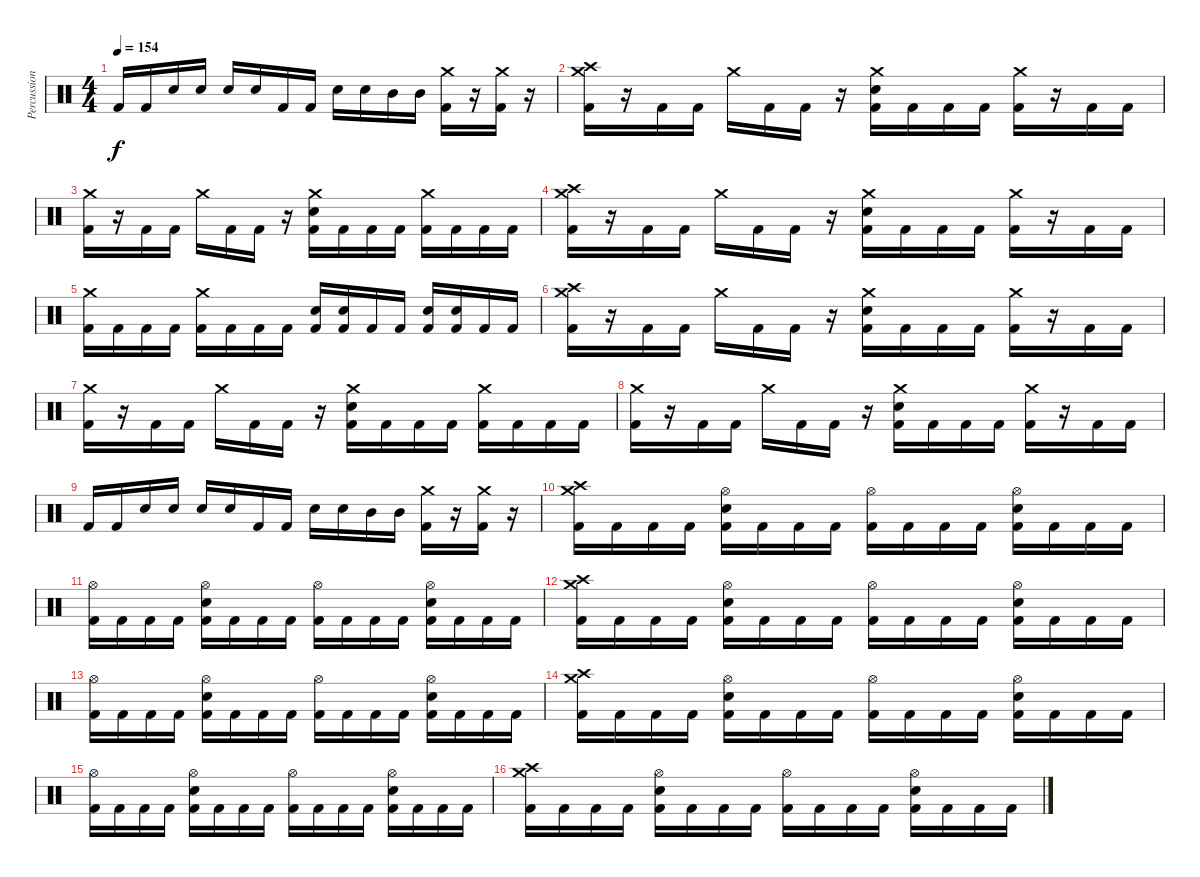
\track ("Percussion" "Percussion") {instrument percussion bank 128}
\staff {score}
\articulation defaults
\ts (4 4)
\tempo 154
\clef neutral
\ks c "Kick (hit) 2".16{dy f} "Kick (hit) 2".16 "Snare (hit) 2".16 "Snare (hit) 2".16 "Snare (hit) 2".16 "Snare (hit) 2".16 "Kick (hit) 2".16 "Kick (hit) 2".16 "Snare (hit) 2".16 "Snare (hit) 2".16 "Mid Tom (hit)".16 "Mid Tom (hit)".16
("Crash medium (hit)" "Kick (hit) 2").16 r.16 ("Crash medium (hit)" "Kick (hit) 2").16 r.16 |
("Crash high (hit)" "Crash medium (hit)" "Kick (hit) 2").16 r.16 "Kick (hit) 2".16 "Kick (hit) 2".16 "Crash medium (hit)".16 "Kick (hit) 2".16 "Kick (hit) 2".16 r.16 ("Crash medium (hit)" "Snare (hit) 2" "Kick (hit) 2").16 "Kick (hit) 2".16 "Kick (hit) 2".16 "Kick (hit) 2".16 ("Crash medium (hit)" "Kick (hit) 2").16 r.16 "Kick (hit) 2".16 "Kick (hit) 2".16 |
("Crash medium (hit)" "Kick (hit) 2").16 r.16 "Kick (hit) 2".16 "Kick (hit) 2".16 "Crash medium (hit)".16 "Kick (hit) 2".16 "Kick (hit) 2".16 r.16 ("Crash medium (hit)" "Snare (hit) 2" "Kick (hit) 2").16 "Kick (hit) 2".16 "Kick (hit) 2".16 "Kick (hit) 2".16 ("Crash medium (hit)" "Kick (hit) 2").16 "Kick (hit) 2".16 "Kick (hit) 2".16 "Kick (hit) 2".16 |
("Crash high (hit)" "Crash medium (hit)" "Kick (hit) 2").16 r.16 "Kick (hit) 2".16 "Kick (hit) 2".16 "Crash medium (hit)".16 "Kick (hit) 2".16 "Kick (hit) 2".16 r.16 ("Crash medium (hit)" "Snare (hit) 2" "Kick (hit) 2").16 "Kick (hit) 2".16 "Kick (hit) 2".16 "Kick (hit) 2".16 ("Crash medium (hit)" "Kick (hit) 2").16 r.16 "Kick (hit) 2".16 "Kick (hit) 2".16 |
("Crash medium (hit)" "Kick (hit) 2").16 "Kick (hit) 2".16 "Kick (hit) 2".16 "Kick (hit) 2".16 ("Crash medium (hit)" "Kick (hit) 2").16 "Kick (hit) 2".16 "Kick (hit) 2".16 "Kick (hit) 2".16 ("Snare (hit) 2" "Kick (hit) 2").16 ("Snare (hit) 2" "Kick (hit) 2").16 "Kick (hit) 2".16 "Kick (hit) 2".16 ("Snare (hit) 2" "Kick (hit) 2").16 ("Snare (hit) 2" "Kick (hit) 2").16 "Kick (hit) 2".16 "Kick (hit) 2".16 |
("Crash high (hit)" "Crash medium (hit)" "Kick (hit) 2").16 r.16 "Kick (hit) 2".16 "Kick (hit) 2".16 "Crash medium (hit)".16 "Kick (hit) 2".16 "Kick (hit) 2".16 r.16 ("Crash medium (hit)" "Snare (hit) 2" "Kick (hit) 2").16 "Kick (hit) 2".16 "Kick (hit) 2".16 "Kick (hit) 2".16 ("Crash medium (hit)" "Kick (hit) 2").16 r.16 "Kick (hit) 2".16 "Kick (hit) 2".16 |
("Crash medium (hit)" "Kick (hit) 2").16 r.16 "Kick (hit) 2".16 "Kick (hit) 2".16 "Crash medium (hit)".16 "Kick (hit) 2".16 "Kick (hit) 2".16 r.16 ("Crash medium (hit)" "Snare (hit) 2" "Kick (hit) 2").16 "Kick (hit) 2".16 "Kick (hit) 2".16 "Kick (hit) 2".16 ("Crash medium (hit)" "Kick (hit) 2").16 "Kick (hit) 2".16 "Kick (hit) 2".16 "Kick (hit) 2".16 |
("Crash medium (hit)" "Kick (hit) 2").16 r.16 "Kick (hit) 2".16 "Kick (hit) 2".16 "Crash medium (hit)".16 "Kick (hit) 2".16 "Kick (hit) 2".16 r.16 ("Crash medium (hit)" "Snare (hit) 2" "Kick (hit) 2").16 "Kick (hit) 2".16 "Kick (hit) 2".16 "Kick (hit) 2".16 ("Crash medium (hit)" "Kick (hit) 2").16 r.16 "Kick (hit) 2".16 "Kick (hit) 2".16 |
"Kick (hit) 2".16 "Kick (hit) 2".16 "Snare (hit) 2".16 "Snare (hit) 2".16 "Snare (hit) 2".16 "Snare (hit) 2".16 "Kick (hit) 2".16 "Kick (hit) 2".16 "Snare (hit) 2".16 "Snare (hit) 2".16 "Mid Tom (hit)".16 "Mid Tom (hit)".16 ("Crash medium (hit)" "Kick (hit) 2").16 r.16 ("Crash medium (hit)" "Kick (hit) 2").16 r.16 |
("Crash high (hit)" "Crash medium (hit)" "Kick (hit) 2").16 "Kick (hit) 2".16 "Kick (hit) 2".16 "Kick (hit) 2".16 ("Hi-Hat (open)" "Snare (hit) 2" "Kick (hit) 2").16 "Kick (hit) 2".16 "Kick (hit) 2".16 "Kick (hit) 2".16 ("Hi-Hat (open)" "Kick (hit) 2").16 "Kick (hit) 2".16 "Kick (hit) 2".16 "Kick (hit) 2".16 ("Hi-Hat (open)" "Snare (hit) 2" "Kick (hit) 2").16 "Kick (hit) 2".16 "Kick (hit) 2".16 "Kick (hit) 2".16 |
("Hi-Hat (open)" "Kick (hit) 2").16 "Kick (hit) 2".16 "Kick (hit) 2".16 "Kick (hit) 2".16 ("Hi-Hat (open)" "Snare (hit) 2" "Kick (hit) 2").16 "Kick (hit) 2".16 "Kick (hit) 2".16 "Kick (hit) 2".16 ("Hi-Hat (open)" "Kick (hit) 2").16 "Kick (hit) 2".16 "Kick (hit) 2".16 "Kick (hit) 2".16 ("Hi-Hat (open)" "Snare (hit) 2" "Kick (hit) 2").16 "Kick (hit) 2".16 "Kick (hit) 2".16 "Kick (hit) 2".16 |
("Crash high (hit)" "Crash medium (hit)" "Kick (hit) 2").16 "Kick (hit) 2".16 "Kick (hit) 2".16 "Kick (hit) 2".16 ("Hi-Hat (open)" "Snare (hit) 2" "Kick (hit) 2").16 "Kick (hit) 2".16 "Kick (hit) 2".16 "Kick (hit) 2".16 ("Hi-Hat (open)" "Kick (hit) 2").16 "Kick (hit) 2".16 "Kick (hit) 2".16 "Kick (hit) 2".16 ("Hi-Hat (open)" "Snare (hit) 2" "Kick (hit) 2").16 "Kick (hit) 2".16 "Kick (hit) 2".16 "Kick (hit) 2".16 |
("Hi-Hat (open)" "Kick (hit) 2").16 "Kick (hit) 2".16 "Kick (hit) 2".16 "Kick (hit) 2".16 ("Hi-Hat (open)" "Snare (hit) 2" "Kick (hit) 2").16 "Kick (hit) 2".16 "Kick (hit) 2".16 "Kick (hit) 2".16 ("Hi-Hat (open)" "Kick (hit) 2").16 "Kick (hit) 2".16 "Kick (hit) 2".16 "Kick (hit) 2".16 ("Hi-Hat (open)" "Snare (hit) 2" "Kick (hit) 2").16 "Kick (hit) 2".16 "Kick (hit) 2".16 "Kick (hit) 2".16 |
("Crash high (hit)" "Crash medium (hit)" "Kick (hit) 2").16 "Kick (hit) 2".16 "Kick (hit) 2".16 "Kick (hit) 2".16 ("Hi-Hat (open)" "Snare (hit) 2" "Kick (hit) 2").16 "Kick (hit) 2".16 "Kick (hit) 2".16 "Kick (hit) 2".16 ("Hi-Hat (open)" "Kick (hit) 2").16 "Kick (hit) 2".16 "Kick (hit) 2".16 "Kick (hit) 2".16 ("Hi-Hat (open)" "Snare (hit) 2" "Kick (hit) 2").16 "Kick (hit) 2".16 "Kick (hit) 2".16 "Kick (hit) 2".16 |
("Hi-Hat (open)" "Kick (hit) 2").16 "Kick (hit) 2".16 "Kick (hit) 2".16 "Kick (hit) 2".16 ("Hi-Hat (open)" "Snare (hit) 2" "Kick (hit) 2").16 "Kick (hit) 2".16 "Kick (hit) 2".16 "Kick (hit) 2".16 ("Hi-Hat (open)" "Kick (hit) 2").16 "Kick (hit) 2".16 "Kick (hit) 2".16 "Kick (hit) 2".16 ("Hi-Hat (open)" "Snare (hit) 2" "Kick (hit) 2").16 "Kick (hit) 2".16 "Kick (hit) 2".16 "Kick (hit) 2".16 |
("Crash high (hit)" "Crash medium (hit)" "Kick (hit) 2").16 "Kick (hit) 2".16 "Kick (hit) 2".16 "Kick (hit) 2".16 ("Hi-Hat (open)" "Snare (hit) 2" "Kick (hit) 2").16 "Kick (hit) 2".16 "Kick (hit) 2".16 "Kick (hit) 2".16 ("Hi-Hat (open)" "Kick (hit) 2").16 "Kick (hit) 2".16 "Kick (hit) 2".16 "Kick (hit) 2".16 ("Hi-Hat (open)" "Snare (hit) 2" "Kick (hit) 2").16 "Kick (hit) 2".16 "Kick (hit) 2".16 "Kick (hit) 2".16
